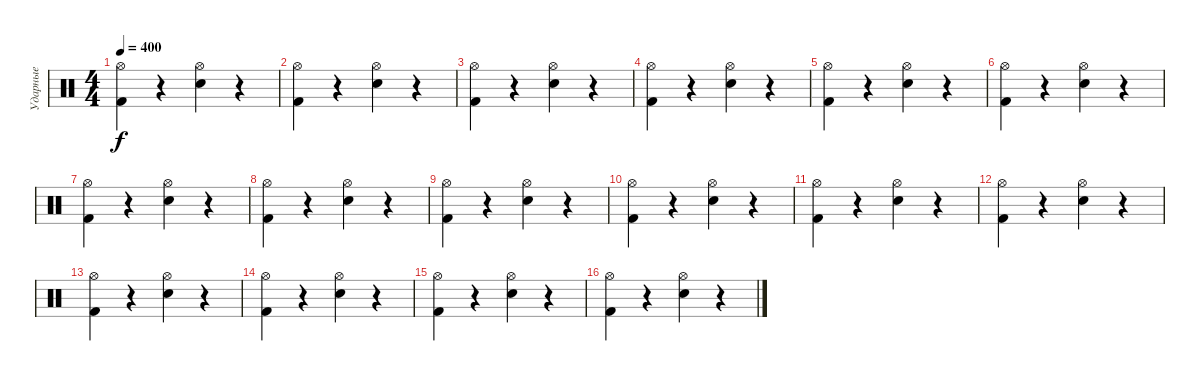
\track ("Ударные" "Ударные") {instrument percussion}
\staff {score}
\articulation defaults
\ts (4 4)
\tempo 400
\clef neutral
\ks c
("Kick (hit) 2" "Hi-Hat (open)").4{dy f} r.4 ("Electric Snare (hit)" "Hi-Hat (open)").4 r.4 |
("Kick (hit) 2" "Hi-Hat (open)").4 r.4 ("Electric Snare (hit)" "Hi-Hat (open)").4 r.4 |
("Kick (hit) 2" "Hi-Hat (open)").4 r.4 ("Electric Snare (hit)" "Hi-Hat (open)").4 r.4 |
("Kick (hit) 2" "Hi-Hat (open)").4 r.4 ("Electric Snare (hit)" "Hi-Hat (open)").4 r.4 |
("Kick (hit) 2" "Hi-Hat (open)").4 r.4 ("Electric Snare (hit)" "Hi-Hat (open)").4 r.4 |
("Kick (hit) 2" "Hi-Hat (open)").4 r.4 ("Electric Snare (hit)" "Hi-Hat (open)").4 r.4 |
("Kick (hit) 2" "Hi-Hat (open)").4 r.4 ("Electric Snare (hit)" "Hi-Hat (open)").4 r.4 |
("Kick (hit) 2" "Hi-Hat (open)").4 r.4 ("Electric Snare (hit)" "Hi-Hat (open)").4 r.4 |
("Kick (hit) 2" "Hi-Hat (open)").4 r.4 ("Electric Snare (hit)" "Hi-Hat (open)").4 r.4 |
("Kick (hit) 2" "Hi-Hat (open)").4 r.4 ("Electric Snare (hit)" "Hi-Hat (open)").4 r.4 |
("Kick (hit) 2" "Hi-Hat (open)").4 r.4 ("Electric Snare (hit)" "Hi-Hat (open)").4 r.4 |
("Kick (hit) 2" "Hi-Hat (open)").4 r.4 ("Electric Snare (hit)" "Hi-Hat (open)").4 r.4 |
("Kick (hit) 2" "Hi-Hat (open)").4 r.4 ("Electric Snare (hit)" "Hi-Hat (open)").4 r.4 |
("Kick (hit) 2" "Hi-Hat (open)").4 r.4 ("Electric Snare (hit)" "Hi-Hat (open)").4 r.4 |
("Kick (hit) 2" "Hi-Hat (open)").4 r.4 ("Electric Snare (hit)" "Hi-Hat (open)").4 r.4 |
("Kick (hit) 2" "Hi-Hat (open)").4 r.4 ("Electric Snare (hit)" "Hi-Hat (open)").4 r.4
